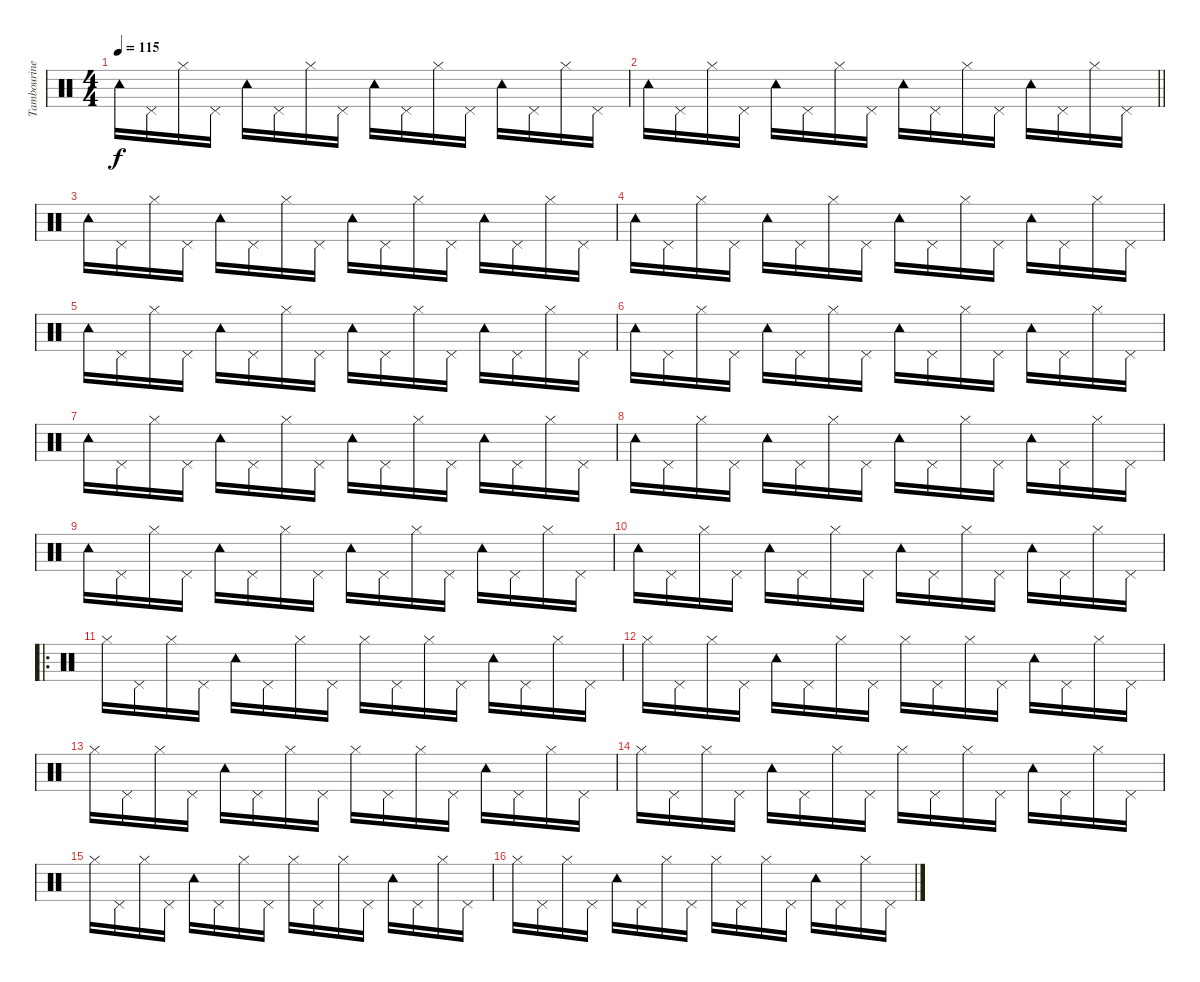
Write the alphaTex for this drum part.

\track ("Tambourine" "Tambourine") {instrument percussion}
\staff {score}
\articulation defaults
\ts (4 4)
\tempo 115
\clef neutral
\ks c "Tambourine (hit)".16{dy f} "Pedal Hi-Hat (hit)".16 "Hi-Hat (closed)".16 "Pedal Hi-Hat (hit)".16 "Tambourine (hit)".16 "Pedal Hi-Hat (hit)".16 "Hi-Hat (closed)".16 "Pedal Hi-Hat (hit)".16 "Tambourine (hit)".16 "Pedal Hi-Hat (hit)".16 "Hi-Hat (closed)".16 "Pedal Hi-Hat (hit)".16 "Tambourine (hit)".16 "Pedal Hi-Hat (hit)".16 "Hi-Hat (closed)".16 "Pedal Hi-Hat (hit)".16
|
\barLineRight lightlight "Tambourine (hit)".16 "Pedal Hi-Hat (hit)".16 "Hi-Hat (closed)".16 "Pedal Hi-Hat (hit)".16 "Tambourine (hit)".16 "Pedal Hi-Hat (hit)".16 "Hi-Hat (closed)".16 "Pedal Hi-Hat (hit)".16 "Tambourine (hit)".16 "Pedal Hi-Hat (hit)".16 "Hi-Hat (closed)".16 "Pedal Hi-Hat (hit)".16 "Tambourine (hit)".16 "Pedal Hi-Hat (hit)".16 "Hi-Hat (closed)".16 "Pedal Hi-Hat (hit)".16
|
"Tambourine (hit)".16 "Pedal Hi-Hat (hit)".16 "Hi-Hat (closed)".16 "Pedal Hi-Hat (hit)".16 "Tambourine (hit)".16 "Pedal Hi-Hat (hit)".16 "Hi-Hat (closed)".16 "Pedal Hi-Hat (hit)".16 "Tambourine (hit)".16 "Pedal Hi-Hat (hit)".16 "Hi-Hat (closed)".16 "Pedal Hi-Hat (hit)".16 "Tambourine (hit)".16 "Pedal Hi-Hat (hit)".16 "Hi-Hat (closed)".16 "Pedal Hi-Hat (hit)".16 |
"Tambourine (hit)".16 "Pedal Hi-Hat (hit)".16 "Hi-Hat (closed)".16 "Pedal Hi-Hat (hit)".16 "Tambourine (hit)".16 "Pedal Hi-Hat (hit)".16 "Hi-Hat (closed)".16 "Pedal Hi-Hat (hit)".16 "Tambourine (hit)".16 "Pedal Hi-Hat (hit)".16 "Hi-Hat (closed)".16 "Pedal Hi-Hat (hit)".16 "Tambourine (hit)".16 "Pedal Hi-Hat (hit)".16 "Hi-Hat (closed)".16 "Pedal Hi-Hat (hit)".16 |
"Tambourine (hit)".16 "Pedal Hi-Hat (hit)".16 "Hi-Hat (closed)".16 "Pedal Hi-Hat (hit)".16 "Tambourine (hit)".16 "Pedal Hi-Hat (hit)".16 "Hi-Hat (closed)".16 "Pedal Hi-Hat (hit)".16 "Tambourine (hit)".16 "Pedal Hi-Hat (hit)".16 "Hi-Hat (closed)".16 "Pedal Hi-Hat (hit)".16 "Tambourine (hit)".16 "Pedal Hi-Hat (hit)".16 "Hi-Hat (closed)".16 "Pedal Hi-Hat (hit)".16 |
"Tambourine (hit)".16 "Pedal Hi-Hat (hit)".16 "Hi-Hat (closed)".16 "Pedal Hi-Hat (hit)".16 "Tambourine (hit)".16 "Pedal Hi-Hat (hit)".16 "Hi-Hat (closed)".16 "Pedal Hi-Hat (hit)".16 "Tambourine (hit)".16 "Pedal Hi-Hat (hit)".16 "Hi-Hat (closed)".16 "Pedal Hi-Hat (hit)".16 "Tambourine (hit)".16 "Pedal Hi-Hat (hit)".16 "Hi-Hat (closed)".16 "Pedal Hi-Hat (hit)".16 |
"Tambourine (hit)".16 "Pedal Hi-Hat (hit)".16 "Hi-Hat (closed)".16 "Pedal Hi-Hat (hit)".16 "Tambourine (hit)".16 "Pedal Hi-Hat (hit)".16 "Hi-Hat (closed)".16 "Pedal Hi-Hat (hit)".16 "Tambourine (hit)".16 "Pedal Hi-Hat (hit)".16 "Hi-Hat (closed)".16 "Pedal Hi-Hat (hit)".16 "Tambourine (hit)".16 "Pedal Hi-Hat (hit)".16 "Hi-Hat (closed)".16 "Pedal Hi-Hat (hit)".16 |
"Tambourine (hit)".16 "Pedal Hi-Hat (hit)".16 "Hi-Hat (closed)".16 "Pedal Hi-Hat (hit)".16 "Tambourine (hit)".16 "Pedal Hi-Hat (hit)".16 "Hi-Hat (closed)".16 "Pedal Hi-Hat (hit)".16 "Tambourine (hit)".16 "Pedal Hi-Hat (hit)".16 "Hi-Hat (closed)".16 "Pedal Hi-Hat (hit)".16 "Tambourine (hit)".16 "Pedal Hi-Hat (hit)".16 "Hi-Hat (closed)".16 "Pedal Hi-Hat (hit)".16 |
"Tambourine (hit)".16 "Pedal Hi-Hat (hit)".16 "Hi-Hat (closed)".16 "Pedal Hi-Hat (hit)".16 "Tambourine (hit)".16 "Pedal Hi-Hat (hit)".16 "Hi-Hat (closed)".16 "Pedal Hi-Hat (hit)".16 "Tambourine (hit)".16 "Pedal Hi-Hat (hit)".16 "Hi-Hat (closed)".16 "Pedal Hi-Hat (hit)".16 "Tambourine (hit)".16 "Pedal Hi-Hat (hit)".16 "Hi-Hat (closed)".16 "Pedal Hi-Hat (hit)".16 |
"Tambourine (hit)".16 "Pedal Hi-Hat (hit)".16 "Hi-Hat (closed)".16 "Pedal Hi-Hat (hit)".16 "Tambourine (hit)".16 "Pedal Hi-Hat (hit)".16 "Hi-Hat (closed)".16 "Pedal Hi-Hat (hit)".16 "Tambourine (hit)".16 "Pedal Hi-Hat (hit)".16 "Hi-Hat (closed)".16 "Pedal Hi-Hat (hit)".16 "Tambourine (hit)".16 "Pedal Hi-Hat (hit)".16 "Hi-Hat (closed)".16 "Pedal Hi-Hat (hit)".16 |
\ro "Hi-Hat (closed)".16 "Pedal Hi-Hat (hit)".16 "Hi-Hat (closed)".16 "Pedal Hi-Hat (hit)".16 "Tambourine (hit)".16 "Pedal Hi-Hat (hit)".16 "Hi-Hat (closed)".16 "Pedal Hi-Hat (hit)".16 "Hi-Hat (closed)".16 "Pedal Hi-Hat (hit)".16 "Hi-Hat (closed)".16 "Pedal Hi-Hat (hit)".16 "Tambourine (hit)".16 "Pedal Hi-Hat (hit)".16 "Hi-Hat (closed)".16 "Pedal Hi-Hat (hit)".16
|
"Hi-Hat (closed)".16 "Pedal Hi-Hat (hit)".16 "Hi-Hat (closed)".16 "Pedal Hi-Hat (hit)".16 "Tambourine (hit)".16 "Pedal Hi-Hat (hit)".16 "Hi-Hat (closed)".16 "Pedal Hi-Hat (hit)".16 "Hi-Hat (closed)".16 "Pedal Hi-Hat (hit)".16 "Hi-Hat (closed)".16 "Pedal Hi-Hat (hit)".16 "Tambourine (hit)".16 "Pedal Hi-Hat (hit)".16 "Hi-Hat (closed)".16 "Pedal Hi-Hat (hit)".16 |
"Hi-Hat (closed)".16 "Pedal Hi-Hat (hit)".16 "Hi-Hat (closed)".16 "Pedal Hi-Hat (hit)".16 "Tambourine (hit)".16 "Pedal Hi-Hat (hit)".16 "Hi-Hat (closed)".16 "Pedal Hi-Hat (hit)".16 "Hi-Hat (closed)".16 "Pedal Hi-Hat (hit)".16 "Hi-Hat (closed)".16 "Pedal Hi-Hat (hit)".16 "Tambourine (hit)".16 "Pedal Hi-Hat (hit)".16 "Hi-Hat (closed)".16 "Pedal Hi-Hat (hit)".16 |
"Hi-Hat (closed)".16 "Pedal Hi-Hat (hit)".16 "Hi-Hat (closed)".16 "Pedal Hi-Hat (hit)".16 "Tambourine (hit)".16 "Pedal Hi-Hat (hit)".16 "Hi-Hat (closed)".16 "Pedal Hi-Hat (hit)".16 "Hi-Hat (closed)".16 "Pedal Hi-Hat (hit)".16 "Hi-Hat (closed)".16 "Pedal Hi-Hat (hit)".16 "Tambourine (hit)".16 "Pedal Hi-Hat (hit)".16 "Hi-Hat (closed)".16 "Pedal Hi-Hat (hit)".16 |
"Hi-Hat (closed)".16 "Pedal Hi-Hat (hit)".16 "Hi-Hat (closed)".16 "Pedal Hi-Hat (hit)".16 "Tambourine (hit)".16 "Pedal Hi-Hat (hit)".16 "Hi-Hat (closed)".16 "Pedal Hi-Hat (hit)".16 "Hi-Hat (closed)".16 "Pedal Hi-Hat (hit)".16 "Hi-Hat (closed)".16 "Pedal Hi-Hat (hit)".16 "Tambourine (hit)".16 "Pedal Hi-Hat (hit)".16 "Hi-Hat (closed)".16 "Pedal Hi-Hat (hit)".16 |
"Hi-Hat (closed)".16 "Pedal Hi-Hat (hit)".16 "Hi-Hat (closed)".16 "Pedal Hi-Hat (hit)".16 "Tambourine (hit)".16 "Pedal Hi-Hat (hit)".16 "Hi-Hat (closed)".16 "Pedal Hi-Hat (hit)".16 "Hi-Hat (closed)".16 "Pedal Hi-Hat (hit)".16 "Hi-Hat (closed)".16 "Pedal Hi-Hat (hit)".16 "Tambourine (hit)".16 "Pedal Hi-Hat (hit)".16 "Hi-Hat (closed)".16 "Pedal Hi-Hat (hit)".16
